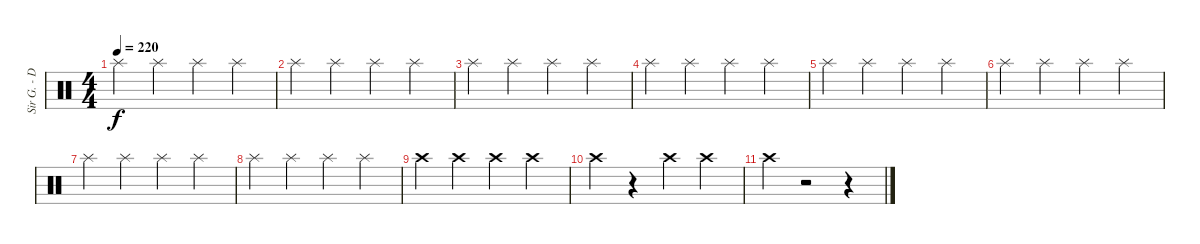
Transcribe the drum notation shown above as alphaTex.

\track ("Sir G. - Drums" "Sir G. - D") {instrument percussion}
\staff {score}
\articulation defaults
\ts (4 4)
\tempo 220
\clef neutral
\ks c "Splash (hit)".4{dy f} "Splash (hit)".4 "Splash (hit)".4 "Splash (hit)".4
|
"Splash (hit)".4 "Splash (hit)".4 "Splash (hit)".4 "Splash (hit)".4 |
"Splash (hit)".4 "Splash (hit)".4 "Splash (hit)".4 "Splash (hit)".4 |
"Splash (hit)".4 "Splash (hit)".4 "Splash (hit)".4 "Splash (hit)".4 |
"Splash (hit)".4 "Splash (hit)".4 "Splash (hit)".4 "Splash (hit)".4 |
"Splash (hit)".4 "Splash (hit)".4 "Splash (hit)".4 "Splash (hit)".4 |
"Splash (hit)".4 "Splash (hit)".4 "Splash (hit)".4 "Splash (hit)".4 |
"Splash (hit)".4 "Splash (hit)".4 "Splash (hit)".4 "Splash (hit)".4 |
"Crash high (hit)".4 "Crash high (hit)".4 "Crash high (hit)".4 "Crash high (hit)".4 |
"Crash high (hit)".4 r.4 "Crash high (hit)".4 "Crash high (hit)".4 |
"Crash high (hit)".4 r.2 r.4
